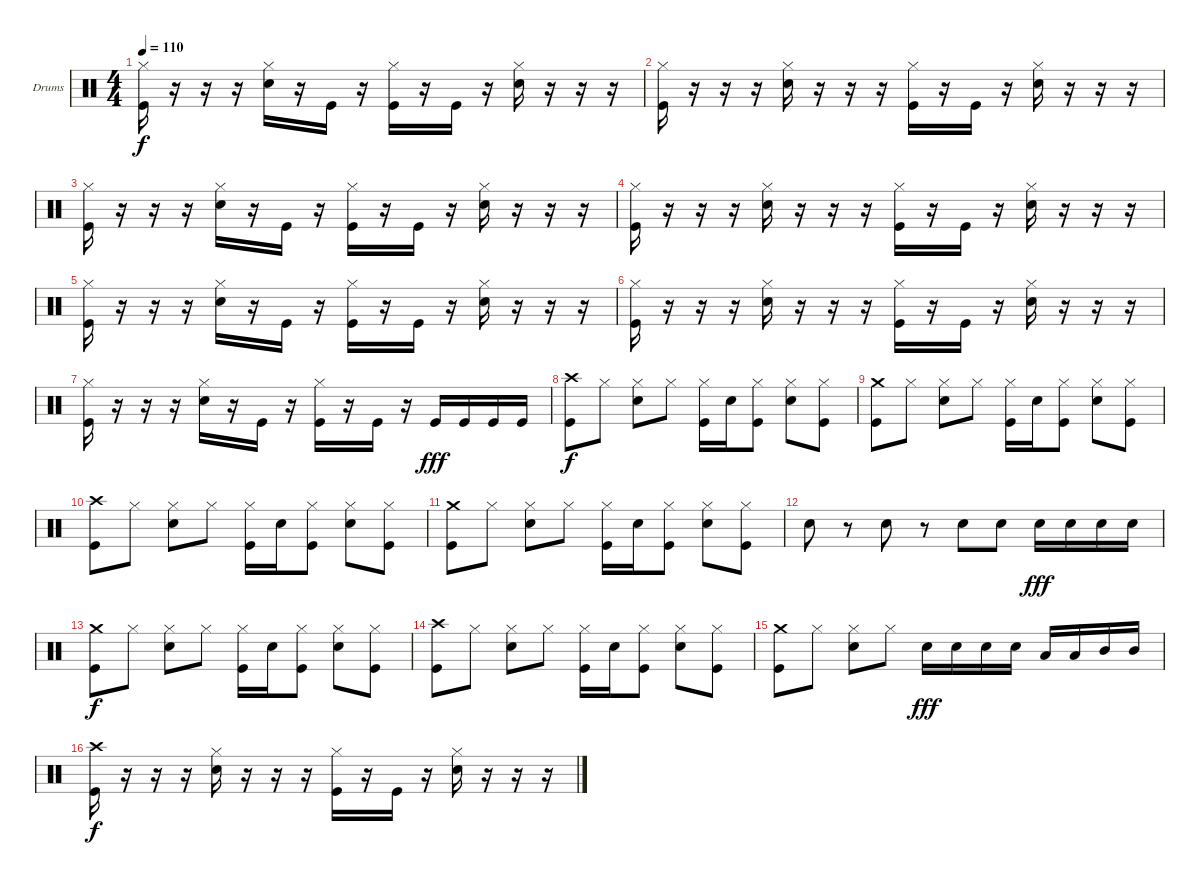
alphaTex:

\defaultSystemsLayout 4
\bracketExtendMode groupsimilarinstruments
\firstSystemTrackNameOrientation horizontal
\otherSystemsTrackNameOrientation horizontal
\track ("Drumkit" "Drums") {instrument percussion}
\staff {score}
\articulation defaults
\ts (4 4)
\tempo 110
\clef neutral
\ks c
("Kick (hit)" "Hi-Hat (closed)").16{dy f} r.16 r.16 r.16 ("Hi-Hat (closed)" "Snare (hit) 2").16 r.16 "Kick (hit)".16 r.16 ("Hi-Hat (closed)" "Kick (hit)").16 r.16 "Kick (hit)".16 r.16 ("Hi-Hat (closed)" "Snare (hit) 2").16 r.16 r.16 r.16 |
("Kick (hit)" "Hi-Hat (closed)").16 r.16 r.16 r.16 ("Hi-Hat (closed)" "Snare (hit) 2").16 r.16 r.16 r.16 ("Hi-Hat (closed)" "Kick (hit)").16 r.16 "Kick (hit)".16 r.16 ("Hi-Hat (closed)" "Snare (hit) 2").16 r.16 r.16 r.16 |
("Kick (hit)" "Hi-Hat (closed)").16 r.16 r.16 r.16 ("Hi-Hat (closed)" "Snare (hit) 2").16 r.16 "Kick (hit)".16 r.16 ("Hi-Hat (closed)" "Kick (hit)").16 r.16 "Kick (hit)".16 r.16 ("Hi-Hat (closed)" "Snare (hit) 2").16 r.16 r.16 r.16 |
("Kick (hit)" "Hi-Hat (closed)").16 r.16 r.16 r.16 ("Hi-Hat (closed)" "Snare (hit) 2").16 r.16 r.16 r.16 ("Hi-Hat (closed)" "Kick (hit)").16 r.16 "Kick (hit)".16 r.16 ("Hi-Hat (closed)" "Snare (hit) 2").16 r.16 r.16 r.16 |
("Kick (hit)" "Hi-Hat (closed)").16 r.16 r.16 r.16 ("Hi-Hat (closed)" "Snare (hit) 2").16 r.16 "Kick (hit)".16 r.16 ("Hi-Hat (closed)" "Kick (hit)").16 r.16 "Kick (hit)".16 r.16 ("Hi-Hat (closed)" "Snare (hit) 2").16 r.16 r.16 r.16 |
("Kick (hit)" "Hi-Hat (closed)").16 r.16 r.16 r.16 ("Hi-Hat (closed)" "Snare (hit) 2").16 r.16 r.16 r.16 ("Hi-Hat (closed)" "Kick (hit)").16 r.16 "Kick (hit)".16 r.16 ("Hi-Hat (closed)" "Snare (hit) 2").16 r.16 r.16 r.16 |
("Kick (hit)" "Hi-Hat (closed)").16 r.16 r.16 r.16 ("Hi-Hat (closed)" "Snare (hit) 2").16 r.16 "Kick (hit)".16 r.16 ("Hi-Hat (closed)" "Kick (hit)").16 r.16 "Kick (hit)".16 r.16 "Kick (hit)".16{dy fff} "Kick (hit)".16 "Kick (hit)".16 "Kick (hit)".16 |
("Kick (hit)" "Crash high (hit)").8{dy f} "Hi-Hat (closed)".8 ("Hi-Hat (closed)" "Snare (hit) 2").8 "Hi-Hat (closed)".8 ("Hi-Hat (closed)" "Kick (hit)").16 "Snare (hit) 2".16 ("Hi-Hat (closed)" "Kick (hit)").8 ("Hi-Hat (closed)" "Snare (hit) 2").8 ("Hi-Hat (closed)" "Kick (hit)").8 |
("Kick (hit)" "Crash medium (hit)").8 "Hi-Hat (closed)".8 ("Hi-Hat (closed)" "Snare (hit) 2").8 "Hi-Hat (closed)".8 ("Hi-Hat (closed)" "Kick (hit)").16 "Snare (hit) 2".16 ("Hi-Hat (closed)" "Kick (hit)").8 ("Hi-Hat (closed)" "Snare (hit) 2").8 ("Hi-Hat (closed)" "Kick (hit)").8 |
("Kick (hit)" "Crash high (hit)").8 "Hi-Hat (closed)".8 ("Hi-Hat (closed)" "Snare (hit) 2").8 "Hi-Hat (closed)".8 ("Hi-Hat (closed)" "Kick (hit)").16 "Snare (hit) 2".16 ("Hi-Hat (closed)" "Kick (hit)").8 ("Hi-Hat (closed)" "Snare (hit) 2").8 ("Hi-Hat (closed)" "Kick (hit)").8 |
("Kick (hit)" "Crash medium (hit)").8 "Hi-Hat (closed)".8 ("Hi-Hat (closed)" "Snare (hit) 2").8 "Hi-Hat (closed)".8 ("Hi-Hat (closed)" "Kick (hit)").16 "Snare (hit) 2".16 ("Hi-Hat (closed)" "Kick (hit)").8 ("Hi-Hat (closed)" "Snare (hit) 2").8 ("Hi-Hat (closed)" "Kick (hit)").8 |
"Snare (hit) 2".8 r.8 "Snare (hit) 2".8 r.8 "Snare (hit) 2".8 "Snare (hit) 2".8 "Snare (hit) 2".16{dy fff} "Snare (hit) 2".16 "Snare (hit) 2".16 "Snare (hit) 2".16 |
("Kick (hit)" "Crash medium (hit)").8{dy f} "Hi-Hat (closed)".8 ("Hi-Hat (closed)" "Snare (hit) 2").8 "Hi-Hat (closed)".8 ("Hi-Hat (closed)" "Kick (hit)").16 "Snare (hit) 2".16 ("Hi-Hat (closed)" "Kick (hit)").8 ("Hi-Hat (closed)" "Snare (hit) 2").8 ("Hi-Hat (closed)" "Kick (hit)").8 |
("Kick (hit)" "Crash high (hit)").8 "Hi-Hat (closed)".8 ("Hi-Hat (closed)" "Snare (hit) 2").8 "Hi-Hat (closed)".8 ("Hi-Hat (closed)" "Kick (hit)").16 "Snare (hit) 2".16 ("Hi-Hat (closed)" "Kick (hit)").8 ("Hi-Hat (closed)" "Snare (hit) 2").8 ("Hi-Hat (closed)" "Kick (hit)").8 |
("Kick (hit)" "Crash medium (hit)").8 "Hi-Hat (closed)".8 ("Hi-Hat (closed)" "Snare (hit) 2").8 "Hi-Hat (closed)".8 "Snare (hit) 2".16{dy fff} "Snare (hit) 2".16 "Snare (hit) 2".16 "Snare (hit) 2".16 "Low Tom (hit)".16 "Low Tom (hit)".16 "Mid Tom (hit)".16 "Mid Tom (hit)".16 |
("Kick (hit)" "Crash high (hit)").16{dy f} r.16 r.16 r.16 ("Hi-Hat (closed)" "Snare (hit) 2").16 r.16 r.16 r.16 ("Hi-Hat (closed)" "Kick (hit)").16 r.16 "Kick (hit)".16 r.16 ("Hi-Hat (closed)" "Snare (hit) 2").16 r.16 r.16 r.16
